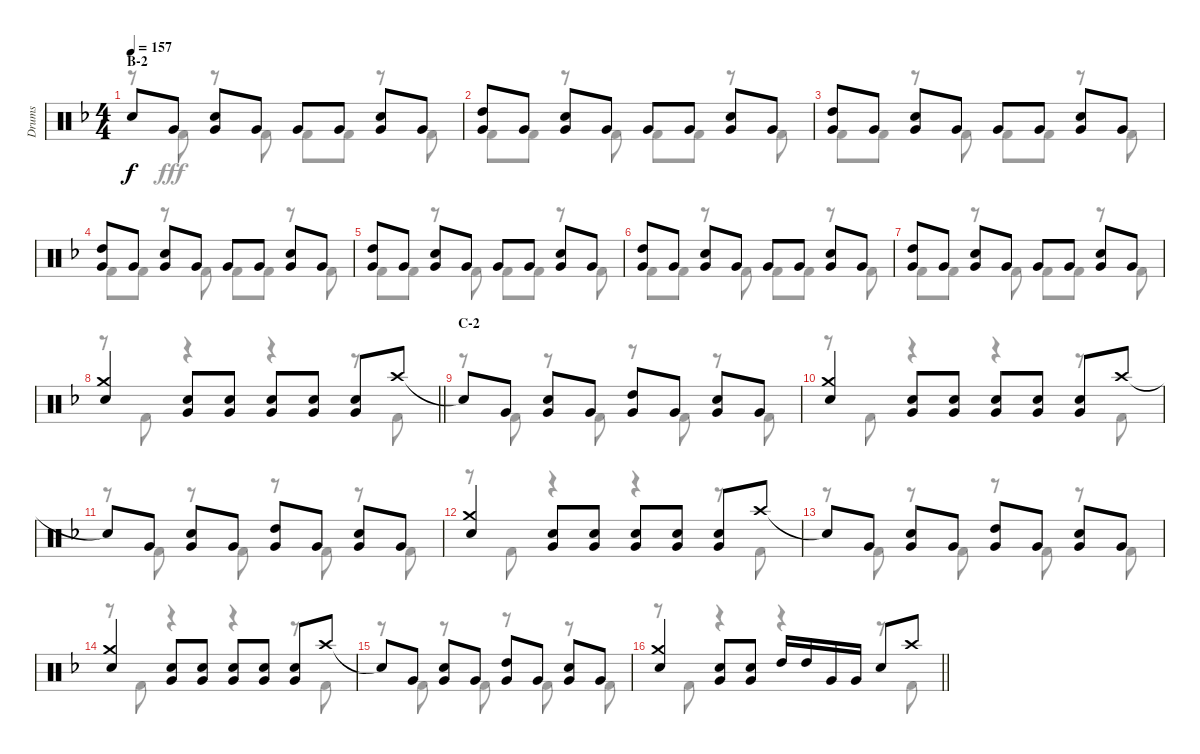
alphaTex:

\track ("Drums" "Drums") {instrument percussion}
\staff {score}
\articulation defaults
\voice
\ts (4 4)
\section ("" "B-2")
\tempo 157
\clef neutral
\ks f "Snare (hit)"{t}.8{dy f} "Very Low Tom (hit)".8
("Snare (hit) 2" "Very Low Tom (hit)").8 "Very Low Tom (hit)".8 "Very Low Tom (hit)".8 "Very Low Tom (hit)".8 ("Snare (hit) 2" "Very Low Tom (hit)").8 "Very Low Tom (hit)".8 |
("High Tom (hit)" "Very Low Tom (hit)").8 "Very Low Tom (hit)".8 ("Snare (hit) 2" "Very Low Tom (hit)").8 "Very Low Tom (hit)".8 "Very Low Tom (hit)".8 "Very Low Tom (hit)".8 ("Snare (hit) 2" "Very Low Tom (hit)").8 "Very Low Tom (hit)".8 |
("High Tom (hit)" "Very Low Tom (hit)").8 "Very Low Tom (hit)".8 ("Snare (hit) 2" "Very Low Tom (hit)").8 "Very Low Tom (hit)".8 "Very Low Tom (hit)".8 "Very Low Tom (hit)".8 ("Snare (hit) 2" "Very Low Tom (hit)").8 "Very Low Tom (hit)".8 |
("High Tom (hit)" "Very Low Tom (hit)").8 "Very Low Tom (hit)".8 ("Snare (hit) 2" "Very Low Tom (hit)").8 "Very Low Tom (hit)".8 "Very Low Tom (hit)".8 "Very Low Tom (hit)".8 ("Snare (hit) 2" "Very Low Tom (hit)").8 "Very Low Tom (hit)".8 |
("High Tom (hit)" "Very Low Tom (hit)").8 "Very Low Tom (hit)".8 ("Snare (hit) 2" "Very Low Tom (hit)").8 "Very Low Tom (hit)".8 "Very Low Tom (hit)".8 "Very Low Tom (hit)".8 ("Snare (hit) 2" "Very Low Tom (hit)").8 "Very Low Tom (hit)".8 |
("High Tom (hit)" "Very Low Tom (hit)").8 "Very Low Tom (hit)".8 ("Snare (hit) 2" "Very Low Tom (hit)").8 "Very Low Tom (hit)".8 "Very Low Tom (hit)".8 "Very Low Tom (hit)".8 ("Snare (hit) 2" "Very Low Tom (hit)").8 "Very Low Tom (hit)".8 |
("High Tom (hit)" "Very Low Tom (hit)").8 "Very Low Tom (hit)".8 ("Snare (hit) 2" "Very Low Tom (hit)").8 "Very Low Tom (hit)".8 "Very Low Tom (hit)".8 "Very Low Tom (hit)".8 ("Snare (hit) 2" "Very Low Tom (hit)").8 "Very Low Tom (hit)".8 |
\barLineRight lightlight
("Crash medium (hit)" "Snare (hit) 2").4 ("Snare (hit) 2" "Very Low Tom (hit)").8 ("Snare (hit) 2" "Very Low Tom (hit)").8 ("Snare (hit) 2" "Very Low Tom (hit)").8 ("Snare (hit) 2" "Very Low Tom (hit)").8 ("Snare (hit) 2" "Very Low Tom (hit)").8 "Crash high (hit)".8 |
\section ("" "C-2")
"Snare (hit)"{t}.8 "Very Low Tom (hit)".8 ("Snare (hit) 2" "Very Low Tom (hit)").8 "Very Low Tom (hit)".8 ("High Tom (hit)" "Very Low Tom (hit)").8 "Very Low Tom (hit)".8 ("Snare (hit) 2" "Very Low Tom (hit)").8 "Very Low Tom (hit)".8 |
("Crash medium (hit)" "Snare (hit) 2").4 ("Snare (hit) 2" "Very Low Tom (hit)").8 ("Snare (hit) 2" "Very Low Tom (hit)").8 ("Snare (hit) 2" "Very Low Tom (hit)").8 ("Snare (hit) 2" "Very Low Tom (hit)").8 ("Snare (hit) 2" "Very Low Tom (hit)").8 "Crash high (hit)".8 |
"Snare (hit)"{t}.8 "Very Low Tom (hit)".8 ("Snare (hit) 2" "Very Low Tom (hit)").8 "Very Low Tom (hit)".8 ("High Tom (hit)" "Very Low Tom (hit)").8 "Very Low Tom (hit)".8 ("Snare (hit) 2" "Very Low Tom (hit)").8 "Very Low Tom (hit)".8 |
("Crash medium (hit)" "Snare (hit) 2").4 ("Snare (hit) 2" "Very Low Tom (hit)").8 ("Snare (hit) 2" "Very Low Tom (hit)").8 ("Snare (hit) 2" "Very Low Tom (hit)").8 ("Snare (hit) 2" "Very Low Tom (hit)").8 ("Snare (hit) 2" "Very Low Tom (hit)").8 "Crash high (hit)".8 |
"Snare (hit)"{t}.8 "Very Low Tom (hit)".8 ("Snare (hit) 2" "Very Low Tom (hit)").8 "Very Low Tom (hit)".8 ("High Tom (hit)" "Very Low Tom (hit)").8 "Very Low Tom (hit)".8 ("Snare (hit) 2" "Very Low Tom (hit)").8 "Very Low Tom (hit)".8 |
("Crash medium (hit)" "Snare (hit) 2").4 ("Snare (hit) 2" "Very Low Tom (hit)").8 ("Snare (hit) 2" "Very Low Tom (hit)").8 ("Snare (hit) 2" "Very Low Tom (hit)").8 ("Snare (hit) 2" "Very Low Tom (hit)").8 ("Snare (hit) 2" "Very Low Tom (hit)").8 "Crash high (hit)".8 |
"Snare (hit)"{t}.8 "Very Low Tom (hit)".8 ("Snare (hit) 2" "Very Low Tom (hit)").8 "Very Low Tom (hit)".8 ("High Tom (hit)" "Very Low Tom (hit)").8 "Very Low Tom (hit)".8 ("Snare (hit) 2" "Very Low Tom (hit)").8 "Very Low Tom (hit)".8 |
\barLineRight lightlight
("Crash medium (hit)" "Snare (hit) 2").4 ("Snare (hit) 2" "Very Low Tom (hit)").8 ("Snare (hit) 2" "Very Low Tom (hit)").8 "High Tom (hit)".16 "High Tom (hit)".16 "Very Low Tom (hit)".16 "Very Low Tom (hit)".16 "Snare (hit) 2".8 "Crash high (hit)".8
\voice
\clef neutral
\ottava regular
\simile none
\ks f
r.8{dy fff} "Kick (hit) 2".8 r.8 "Kick (hit) 2".8 "Kick (hit) 2".8 "Kick (hit) 2".8 r.8 "Kick (hit) 2".8 |
"Kick (hit) 2".8 "Kick (hit) 2".8 r.8 "Kick (hit) 2".8 "Kick (hit) 2".8 "Kick (hit) 2".8 r.8 "Kick (hit) 2".8 |
"Kick (hit) 2".8 "Kick (hit) 2".8 r.8 "Kick (hit) 2".8 "Kick (hit) 2".8 "Kick (hit) 2".8 r.8 "Kick (hit) 2".8 |
"Kick (hit) 2".8 "Kick (hit) 2".8 r.8 "Kick (hit) 2".8 "Kick (hit) 2".8 "Kick (hit) 2".8 r.8 "Kick (hit) 2".8 |
"Kick (hit) 2".8 "Kick (hit) 2".8 r.8 "Kick (hit) 2".8 "Kick (hit) 2".8 "Kick (hit) 2".8 r.8 "Kick (hit) 2".8 |
"Kick (hit) 2".8 "Kick (hit) 2".8 r.8 "Kick (hit) 2".8 "Kick (hit) 2".8 "Kick (hit) 2".8 r.8 "Kick (hit) 2".8 |
"Kick (hit) 2".8 "Kick (hit) 2".8 r.8 "Kick (hit) 2".8 "Kick (hit) 2".8 "Kick (hit) 2".8 r.8 "Kick (hit) 2".8 |
\barLineRight lightlight
r.8 "Kick (hit) 2".8 r.4 r.4 r.8 "Kick (hit) 2".8 |
r.8 "Kick (hit) 2".8 r.8 "Kick (hit) 2".8 r.8 "Kick (hit) 2".8 r.8 "Kick (hit) 2".8 |
r.8 "Kick (hit) 2".8 r.4 r.4 r.8 "Kick (hit) 2".8 |
r.8 "Kick (hit) 2".8 r.8 "Kick (hit) 2".8 r.8 "Kick (hit) 2".8 r.8 "Kick (hit) 2".8 |
r.8 "Kick (hit) 2".8 r.4 r.4 r.8 "Kick (hit) 2".8 |
r.8 "Kick (hit) 2".8 r.8 "Kick (hit) 2".8 r.8 "Kick (hit) 2".8 r.8 "Kick (hit) 2".8 |
r.8 "Kick (hit) 2".8 r.4 r.4 r.8 "Kick (hit) 2".8 |
r.8 "Kick (hit) 2".8 r.8 "Kick (hit) 2".8 r.8 "Kick (hit) 2".8 r.8 "Kick (hit) 2".8 |
\barLineRight lightlight
r.8 "Kick (hit) 2".8 r.4 r.4 r.8 "Kick (hit) 2".8
